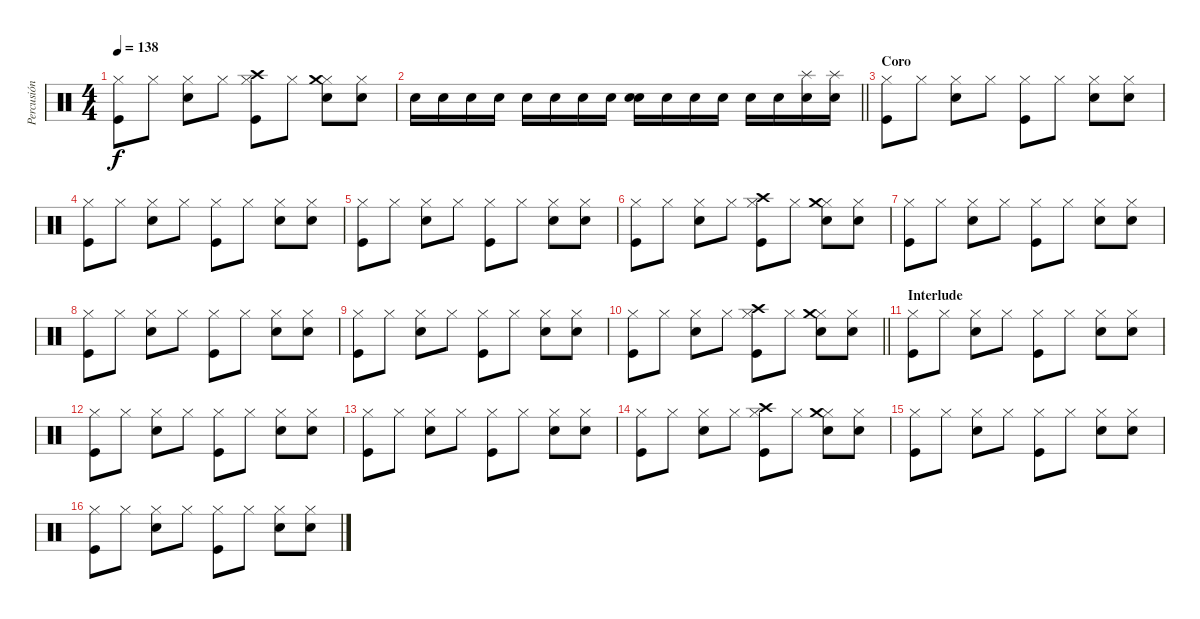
\track ("Percusión" "Percusión") {instrument percussion}
\staff {score}
\articulation defaults
\ts (4 4)
\tempo 138
\clef neutral
\ks c
("Hi-Hat (closed)" "Kick (hit)").8{dy f} "Hi-Hat (closed)".8 ("Hi-Hat (closed)" "Snare (hit) 2").8 "Hi-Hat (closed)".8 ("Hi-Hat (closed)" "Kick (hit)" "Crash high (hit)").8 "Hi-Hat (closed)".8 ("Hi-Hat (closed)" "Snare (hit) 2" "Crash medium (hit)").8 ("Hi-Hat (closed)" "Snare (hit) 2").8 |
\barLineRight lightlight "Snare (hit) 2".16 "Snare (hit) 2".16 "Snare (hit) 2".16 "Snare (hit) 2".16 "Snare (hit) 2".16 "Snare (hit) 2".16 "Snare (hit) 2".16 "Snare (hit) 2".16
("Snare (hit) 2" "Snare (hit) 2").16 "Snare (hit) 2".16 "Snare (hit) 2".16 "Snare (hit) 2".16 "Snare (hit) 2".16 "Snare (hit) 2".16 ("Splash (hit)" "Snare (hit) 2").16 ("Splash (hit)" "Snare (hit) 2").16 |
\section ("" "Coro")
("Hi-Hat (closed)" "Kick (hit)").8 "Hi-Hat (closed)".8 ("Hi-Hat (closed)" "Snare (hit) 2").8 "Hi-Hat (closed)".8 ("Hi-Hat (closed)" "Kick (hit)").8 "Hi-Hat (closed)".8 ("Hi-Hat (closed)" "Snare (hit) 2").8 ("Hi-Hat (closed)" "Snare (hit) 2").8 |
("Hi-Hat (closed)" "Kick (hit)").8 "Hi-Hat (closed)".8 ("Hi-Hat (closed)" "Snare (hit) 2").8 "Hi-Hat (closed)".8 ("Hi-Hat (closed)" "Kick (hit)").8 "Hi-Hat (closed)".8 ("Hi-Hat (closed)" "Snare (hit) 2").8 ("Hi-Hat (closed)" "Snare (hit) 2").8 |
("Hi-Hat (closed)" "Kick (hit)").8 "Hi-Hat (closed)".8 ("Hi-Hat (closed)" "Snare (hit) 2").8 "Hi-Hat (closed)".8 ("Hi-Hat (closed)" "Kick (hit)").8 "Hi-Hat (closed)".8 ("Hi-Hat (closed)" "Snare (hit) 2").8 ("Hi-Hat (closed)" "Snare (hit) 2").8 |
("Hi-Hat (closed)" "Kick (hit)").8 "Hi-Hat (closed)".8 ("Hi-Hat (closed)" "Snare (hit) 2").8 "Hi-Hat (closed)".8 ("Hi-Hat (closed)" "Kick (hit)" "Crash high (hit)").8 "Hi-Hat (closed)".8 ("Hi-Hat (closed)" "Snare (hit) 2" "Crash medium (hit)").8 ("Hi-Hat (closed)" "Snare (hit) 2").8 |
("Hi-Hat (closed)" "Kick (hit)").8 "Hi-Hat (closed)".8 ("Hi-Hat (closed)" "Snare (hit) 2").8 "Hi-Hat (closed)".8 ("Hi-Hat (closed)" "Kick (hit)").8 "Hi-Hat (closed)".8 ("Hi-Hat (closed)" "Snare (hit) 2").8 ("Hi-Hat (closed)" "Snare (hit) 2").8 |
("Hi-Hat (closed)" "Kick (hit)").8 "Hi-Hat (closed)".8 ("Hi-Hat (closed)" "Snare (hit) 2").8 "Hi-Hat (closed)".8 ("Hi-Hat (closed)" "Kick (hit)").8 "Hi-Hat (closed)".8 ("Hi-Hat (closed)" "Snare (hit) 2").8 ("Hi-Hat (closed)" "Snare (hit) 2").8 |
("Hi-Hat (closed)" "Kick (hit)").8 "Hi-Hat (closed)".8 ("Hi-Hat (closed)" "Snare (hit) 2").8 "Hi-Hat (closed)".8 ("Hi-Hat (closed)" "Kick (hit)").8 "Hi-Hat (closed)".8 ("Hi-Hat (closed)" "Snare (hit) 2").8 ("Hi-Hat (closed)" "Snare (hit) 2").8 |
\barLineRight lightlight
("Hi-Hat (closed)" "Kick (hit)").8 "Hi-Hat (closed)".8 ("Hi-Hat (closed)" "Snare (hit) 2").8 "Hi-Hat (closed)".8 ("Hi-Hat (closed)" "Kick (hit)" "Crash high (hit)").8 "Hi-Hat (closed)".8 ("Hi-Hat (closed)" "Snare (hit) 2" "Crash medium (hit)").8 ("Hi-Hat (closed)" "Snare (hit) 2").8 |
\section ("" "Interlude")
("Hi-Hat (closed)" "Kick (hit)").8 "Hi-Hat (closed)".8 ("Hi-Hat (closed)" "Snare (hit) 2").8 "Hi-Hat (closed)".8 ("Hi-Hat (closed)" "Kick (hit)").8 "Hi-Hat (closed)".8 ("Hi-Hat (closed)" "Snare (hit) 2").8 ("Hi-Hat (closed)" "Snare (hit) 2").8 |
("Hi-Hat (closed)" "Kick (hit)").8 "Hi-Hat (closed)".8 ("Hi-Hat (closed)" "Snare (hit) 2").8 "Hi-Hat (closed)".8 ("Hi-Hat (closed)" "Kick (hit)").8 "Hi-Hat (closed)".8 ("Hi-Hat (closed)" "Snare (hit) 2").8 ("Hi-Hat (closed)" "Snare (hit) 2").8 |
("Hi-Hat (closed)" "Kick (hit)").8 "Hi-Hat (closed)".8 ("Hi-Hat (closed)" "Snare (hit) 2").8 "Hi-Hat (closed)".8 ("Hi-Hat (closed)" "Kick (hit)").8 "Hi-Hat (closed)".8 ("Hi-Hat (closed)" "Snare (hit) 2").8 ("Hi-Hat (closed)" "Snare (hit) 2").8 |
("Hi-Hat (closed)" "Kick (hit)").8 "Hi-Hat (closed)".8 ("Hi-Hat (closed)" "Snare (hit) 2").8 "Hi-Hat (closed)".8 ("Hi-Hat (closed)" "Kick (hit)" "Crash high (hit)").8 "Hi-Hat (closed)".8 ("Hi-Hat (closed)" "Snare (hit) 2" "Crash medium (hit)").8 ("Hi-Hat (closed)" "Snare (hit) 2").8 |
("Hi-Hat (closed)" "Kick (hit)").8 "Hi-Hat (closed)".8 ("Hi-Hat (closed)" "Snare (hit) 2").8 "Hi-Hat (closed)".8 ("Hi-Hat (closed)" "Kick (hit)").8 "Hi-Hat (closed)".8 ("Hi-Hat (closed)" "Snare (hit) 2").8 ("Hi-Hat (closed)" "Snare (hit) 2").8 |
("Hi-Hat (closed)" "Kick (hit)").8 "Hi-Hat (closed)".8 ("Hi-Hat (closed)" "Snare (hit) 2").8 "Hi-Hat (closed)".8 ("Hi-Hat (closed)" "Kick (hit)").8 "Hi-Hat (closed)".8 ("Hi-Hat (closed)" "Snare (hit) 2").8 ("Hi-Hat (closed)" "Snare (hit) 2").8
